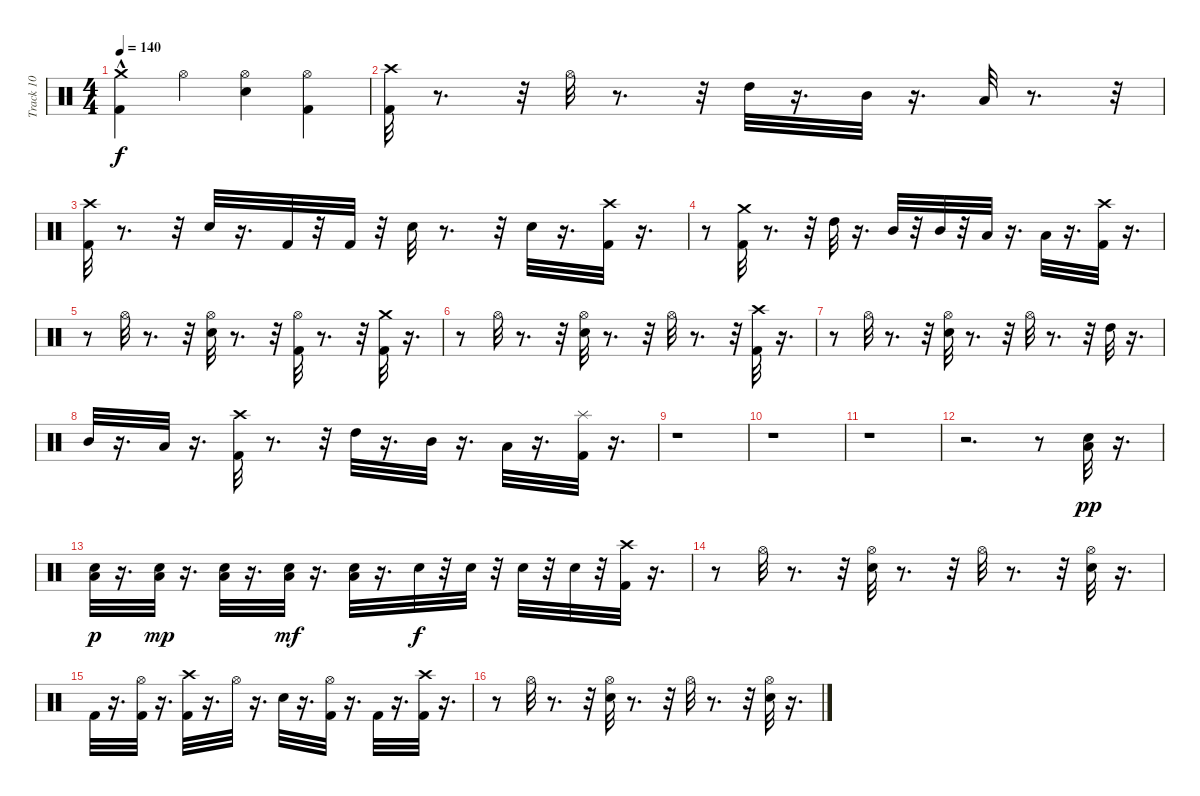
\track ("Track 10" "Track 10") {instrument percussion}
\staff {score}
\articulation defaults
\ts (4 4)
\tempo 140
\clef neutral
\ks c
("Crash medium (hit)" "Kick (hit) 2"{hac}).4{dy f} "Hi-Hat (open)".4 ("Hi-Hat (open)" "Electric Snare (hit)").4 ("Hi-Hat (open)" "Kick (hit) 2").4 |
("Crash high (hit)" "Kick (hit) 2").32 r.8{d} r.32 "Hi-Hat (open)".32 r.8{d} r.32 "High Tom (hit)".32 r.16{d} "Mid Tom (hit)".32 r.16{d} "Low Tom (hit)".32 r.8{d} r.32 |
("Kick (hit) 2" "Crash high (hit)").32 r.8{d} r.32 "Electric Snare (hit)".32 r.16{d} "Kick (hit) 2".32 r.32 "Kick (hit) 2".32 r.32 "Electric Snare (hit)".32 r.8{d} r.32 "Electric Snare (hit)".32 r.16{d} ("Crash high (hit)" "Kick (hit) 2").32 r.16{d} |
r.8 ("Crash medium (hit)" "Kick (hit) 2").32 r.8{d} r.32 "High Tom (hit)".32 r.16{d} "Mid Tom (hit)".32 r.32 "Mid Tom (hit)".32 r.32 "Low Tom (hit)".32 r.16{d} "Low Tom (hit)".32 r.16{d} ("Crash high (hit)" "Kick (hit) 2").32 r.16{d} |
r.8 "Hi-Hat (open)".32 r.8{d} r.32 ("Hi-Hat (open)" "Electric Snare (hit)").32 r.8{d} r.32 ("Hi-Hat (open)" "Kick (hit) 2").32 r.8{d} r.32 ("Crash medium (hit)" "Kick (hit) 2").32 r.16{d} |
r.8 "Hi-Hat (open)".32 r.8{d} r.32 ("Electric Snare (hit)" "Hi-Hat (open)").32 r.8{d} r.32 "Hi-Hat (open)".32 r.8{d} r.32 ("Kick (hit) 2" "Crash high (hit)").32 r.16{d} |
r.8 "Hi-Hat (open)".32 r.8{d} r.32 ("Hi-Hat (open)" "Electric Snare (hit)").32 r.8{d} r.32 "Hi-Hat (open)".32 r.8{d} r.32 "High Tom (hit)".32 r.16{d} |
"Mid Tom (hit)".32 r.16{d} "Low Tom (hit)".32 r.16{d} ("Crash high (hit)" "Kick (hit) 2").32 r.8{d} r.32 "High Tom (hit)".32 r.16{d} "Mid Tom (hit)".32 r.16{d} "Low Tom (hit)".32 r.16{d} ("Kick (hit) 2" "Splash (hit)").32 r.16{d} |
r.1 |
r.1 |
r.1 |
r.2{d} r.8 ("Electric Snare (hit)" "Low Tom (hit)").32{dy pp} r.16{d} |
("Electric Snare (hit)" "Low Tom (hit)").32{dy p} r.16{d} ("Low Tom (hit)" "Electric Snare (hit)").32{dy mp} r.16{d} ("Electric Snare (hit)" "Low Tom (hit)").32 r.16{d} ("Low Tom (hit)" "Electric Snare (hit)").32{dy mf} r.16{d} ("Electric Snare (hit)" "Low Tom (hit)").32 r.16{d} "Electric Snare (hit)".32{dy f} r.32 "Electric Snare (hit)".32 r.32 "Electric Snare (hit)".32 r.32 "Electric Snare (hit)".32 r.32 ("Kick (hit) 2" "Crash high (hit)").32 r.16{d} |
r.8 "Hi-Hat (open)".32 r.8{d} r.32 ("Electric Snare (hit)" "Hi-Hat (open)").32 r.8{d} r.32 "Hi-Hat (open)".32 r.8{d} r.32 ("Electric Snare (hit)" "Hi-Hat (open)").32 r.16{d} |
"Kick (hit) 2".32 r.16{d} ("Hi-Hat (open)" "Kick (hit) 2").32 r.16{d} ("Crash high (hit)" "Kick (hit) 2").32 r.16{d} "Hi-Hat (open)".32 r.16{d} "Electric Snare (hit)".32 r.16{d} ("Kick (hit) 2" "Hi-Hat (open)").32 r.16{d} "Kick (hit) 2".32 r.16{d} ("Crash high (hit)" "Kick (hit) 2").32 r.16{d} |
r.8 "Hi-Hat (open)".32 r.8{d} r.32 ("Electric Snare (hit)" "Hi-Hat (open)").32 r.8{d} r.32 "Hi-Hat (open)".32 r.8{d} r.32 ("Electric Snare (hit)" "Hi-Hat (open)").32 r.16{d}
